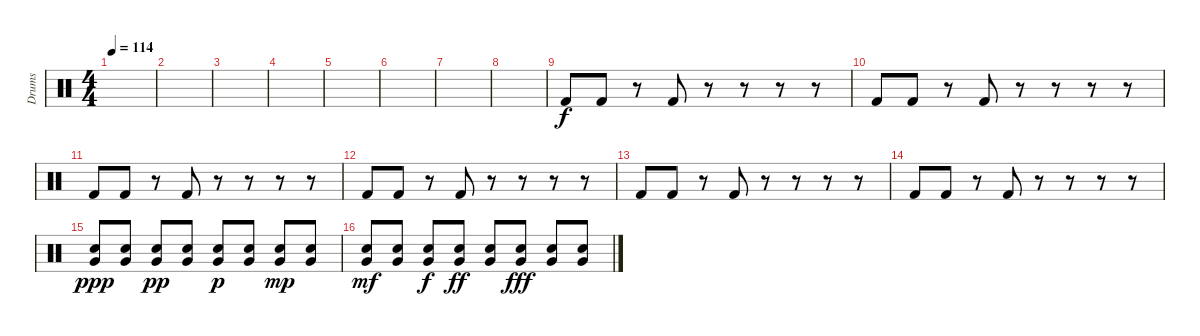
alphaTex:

\track ("Drums" "Drums") {instrument percussion}
\staff {score}
\articulation defaults
\ts (4 4)
\tempo 114
\clef neutral
\ks c
|
|
|
|
|
|
|
|
"Kick (hit) 2".8 "Kick (hit) 2".8 r.8 "Kick (hit) 2".8 r.8 r.8 r.8 r.8 |
"Kick (hit) 2".8 "Kick (hit) 2".8 r.8 "Kick (hit) 2".8 r.8 r.8 r.8 r.8 |
"Kick (hit) 2".8 "Kick (hit) 2".8 r.8 "Kick (hit) 2".8 r.8 r.8 r.8 r.8 |
"Kick (hit) 2".8 "Kick (hit) 2".8 r.8 "Kick (hit) 2".8 r.8 r.8 r.8 r.8 |
"Kick (hit) 2".8 "Kick (hit) 2".8 r.8 "Kick (hit) 2".8 r.8 r.8 r.8 r.8 |
"Kick (hit) 2".8 "Kick (hit) 2".8 r.8 "Kick (hit) 2".8 r.8 r.8 r.8 r.8{volume 9} |
("Very Low Tom (hit)" "Snare (hit) 2").8{dy ppp volume 16} ("Very Low Tom (hit)" "Snare (hit) 2").8 ("Very Low Tom (hit)" "Snare (hit) 2").8{dy pp} ("Very Low Tom (hit)" "Snare (hit) 2").8 ("Very Low Tom (hit)" "Snare (hit) 2").8{dy p} ("Very Low Tom (hit)" "Snare (hit) 2").8 ("Very Low Tom (hit)" "Snare (hit) 2").8{dy mp} ("Very Low Tom (hit)" "Snare (hit) 2").8 |
("Very Low Tom (hit)" "Snare (hit) 2").8{dy mf} ("Very Low Tom (hit)" "Snare (hit) 2").8 ("Very Low Tom (hit)" "Snare (hit) 2").8{dy f} ("Very Low Tom (hit)" "Snare (hit) 2").8{dy ff} ("Very Low Tom (hit)" "Snare (hit) 2").8 ("Very Low Tom (hit)" "Snare (hit) 2").8{dy fff} ("Very Low Tom (hit)" "Snare (hit) 2").8 ("Very Low Tom (hit)" "Snare (hit) 2").8
